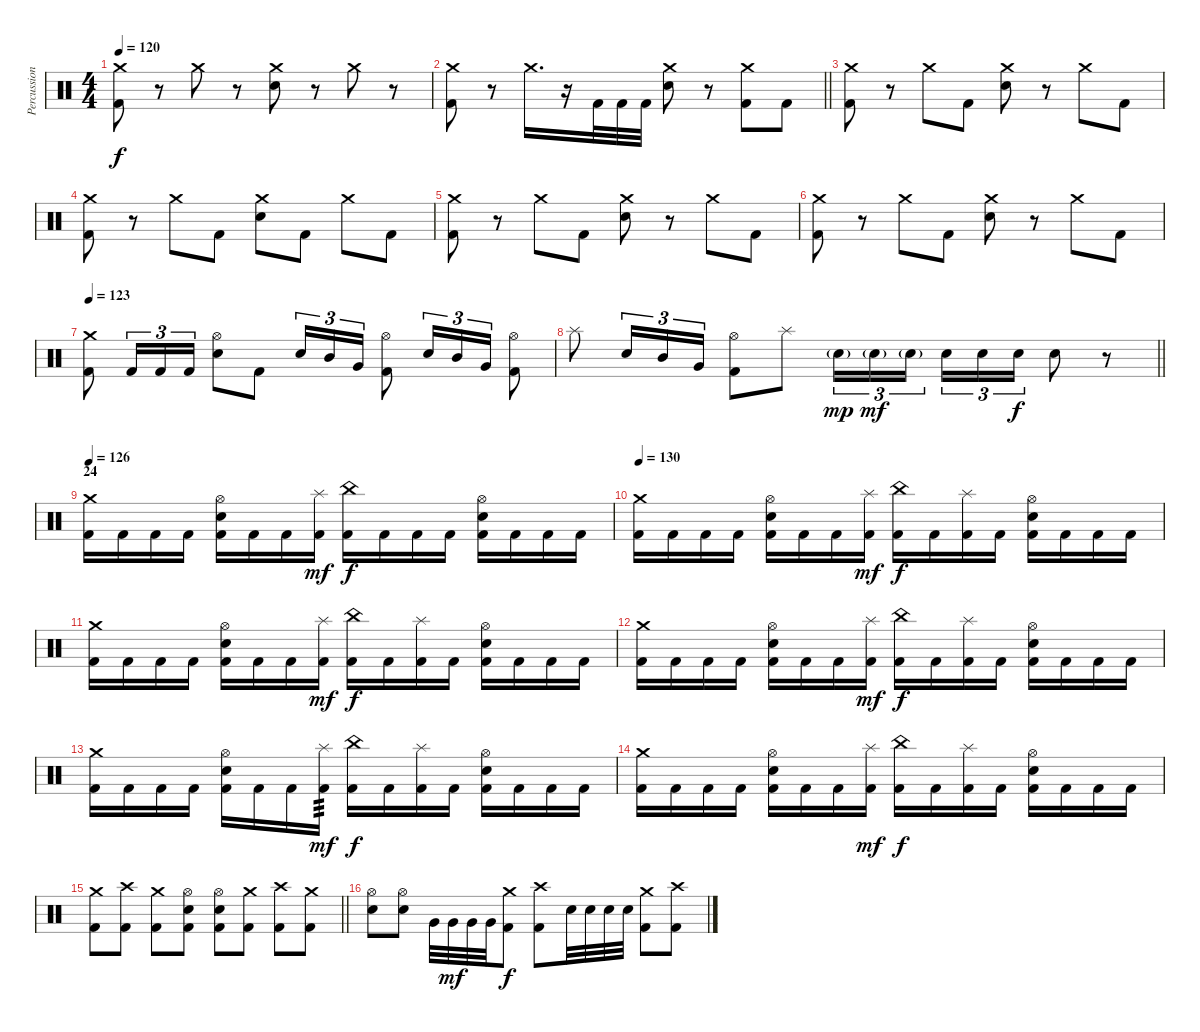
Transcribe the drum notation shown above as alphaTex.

\track ("Percussion" "Percussion") {instrument percussion}
\staff {score}
\articulation defaults
\ts (4 4)
\tempo 120
\clef neutral
\ks c
("Crash medium (hit)" "Kick (hit) 2").8{dy f} r.8 "Crash medium (hit)".8 r.8 ("Crash medium (hit)" "Snare (hit) 2").8 r.8 "Crash medium (hit)".8 r.8 |
\barLineRight lightlight
("Crash medium (hit)" "Kick (hit) 2").8 r.8 "Crash medium (hit)".16{d} r.16 "Kick (hit) 2".32 "Kick (hit) 2".32 "Kick (hit) 2".32 ("Crash medium (hit)" "Snare (hit) 2").8 r.8 ("Crash medium (hit)" "Kick (hit) 2").8 "Kick (hit) 2".8 |
\section ("" "")
("Crash medium (hit)" "Kick (hit) 2").8 r.8 "Crash medium (hit)".8 "Kick (hit) 2".8 ("Crash medium (hit)" "Snare (hit) 2").8 r.8 "Crash medium (hit)".8 "Kick (hit) 2".8 |
("Crash medium (hit)" "Kick (hit) 2").8 r.8 "Crash medium (hit)".8 "Kick (hit) 2".8 ("Crash medium (hit)" "Snare (hit) 2").8 "Kick (hit) 2".8 "Crash medium (hit)".8 "Kick (hit) 2".8 |
("Crash medium (hit)" "Kick (hit) 2").8 r.8 "Crash medium (hit)".8 "Kick (hit) 2".8 ("Crash medium (hit)" "Snare (hit) 2").8 r.8 "Crash medium (hit)".8 "Kick (hit) 2".8 |
("Crash medium (hit)" "Kick (hit) 2").8 r.8 "Crash medium (hit)".8 "Kick (hit) 2".8 ("Crash medium (hit)" "Snare (hit) 2").8 r.8 "Crash medium (hit)".8 "Kick (hit) 2".8 |
\tempo 123
("Crash medium (hit)" "Kick (hit) 2").8 "Kick (hit) 2".16{tu (3 2)} "Kick (hit) 2".16{tu (3 2)} "Kick (hit) 2".16{tu (3 2)} ("Hi-Hat (open)" "Snare (hit) 2").8 "Kick (hit) 2".8 "Snare (hit) 2".16{tu (3 2)} "Mid Tom (hit)".16{tu (3 2)} "Very Low Tom (hit)".16{tu (3 2)} ("Hi-Hat (open)" "Kick (hit) 2").8 "Snare (hit) 2".16{tu (3 2)} "Mid Tom (hit)".16{tu (3 2)} "Very Low Tom (hit)".16{tu (3 2)} ("Hi-Hat (open)" "Kick (hit) 2").8 |
\barLineRight lightlight "Splash (hit)".8 "Snare (hit) 2".16{tu (3 2)} "Mid Tom (hit)".16{tu (3 2)} "Very Low Tom (hit)".16{tu (3 2)}
("Hi-Hat (open)" "Kick (hit) 2").8 "Splash (hit)".8 "Snare (hit) 2"{g}.16{tu (3 2) dy mp} "Snare (hit) 2"{g}.16{tu (3 2) dy mf} "Snare (hit) 2"{g}.16{tu (3 2) beam splitsecondary} "Snare (hit) 2".16{tu (3 2)} "Snare (hit) 2".16{tu (3 2)} "Snare (hit) 2".16{tu (3 2) dy f} "Snare (hit) 2".8 r.8 |
\section ("" "24")
\tempo 126
("Crash medium (hit)" "Kick (hit) 2").16 "Kick (hit) 2".16 "Kick (hit) 2".16 "Kick (hit) 2".16 ("Hi-Hat (open)" "Snare (hit) 2" "Kick (hit) 2").16 "Kick (hit) 2".16 "Kick (hit) 2".16 ("Splash (hit)" "Kick (hit) 2").16{dy mf} ("China (hit)" "Kick (hit) 2").16{dy f} "Kick (hit) 2".16 "Kick (hit) 2".16 "Kick (hit) 2".16 ("Hi-Hat (open)" "Snare (hit) 2" "Kick (hit) 2").16 "Kick (hit) 2".16 "Kick (hit) 2".16 "Kick (hit) 2".16 |
\tempo 130
("Crash medium (hit)" "Kick (hit) 2").16 "Kick (hit) 2".16 "Kick (hit) 2".16 "Kick (hit) 2".16 ("Hi-Hat (open)" "Snare (hit) 2" "Kick (hit) 2").16 "Kick (hit) 2".16 "Kick (hit) 2".16 ("Splash (hit)" "Kick (hit) 2").16{dy mf} ("China (hit)" "Kick (hit) 2").16{dy f} "Kick (hit) 2".16 ("Splash (hit)" "Kick (hit) 2").16 "Kick (hit) 2".16 ("Hi-Hat (open)" "Snare (hit) 2" "Kick (hit) 2").16 "Kick (hit) 2".16 "Kick (hit) 2".16 "Kick (hit) 2".16 |
("Crash medium (hit)" "Kick (hit) 2").16 "Kick (hit) 2".16 "Kick (hit) 2".16 "Kick (hit) 2".16 ("Hi-Hat (open)" "Snare (hit) 2" "Kick (hit) 2").16 "Kick (hit) 2".16 "Kick (hit) 2".16 ("Splash (hit)" "Kick (hit) 2").16{dy mf} ("China (hit)" "Kick (hit) 2").16{dy f} "Kick (hit) 2".16 ("Splash (hit)" "Kick (hit) 2").16 "Kick (hit) 2".16 ("Hi-Hat (open)" "Snare (hit) 2" "Kick (hit) 2").16 "Kick (hit) 2".16 "Kick (hit) 2".16 "Kick (hit) 2".16 |
("Crash medium (hit)" "Kick (hit) 2").16 "Kick (hit) 2".16 "Kick (hit) 2".16 "Kick (hit) 2".16 ("Hi-Hat (open)" "Snare (hit) 2" "Kick (hit) 2").16 "Kick (hit) 2".16 "Kick (hit) 2".16 ("Splash (hit)" "Kick (hit) 2").16{dy mf} ("China (hit)" "Kick (hit) 2").16{dy f} "Kick (hit) 2".16 ("Splash (hit)" "Kick (hit) 2").16 "Kick (hit) 2".16 ("Hi-Hat (open)" "Snare (hit) 2" "Kick (hit) 2").16 "Kick (hit) 2".16 "Kick (hit) 2".16 "Kick (hit) 2".16 |
("Crash medium (hit)" "Kick (hit) 2").16 "Kick (hit) 2".16 "Kick (hit) 2".16 "Kick (hit) 2".16 ("Hi-Hat (open)" "Snare (hit) 2" "Kick (hit) 2").16 "Kick (hit) 2".16 "Kick (hit) 2".16 ("Splash (hit)" "Kick (hit) 2").16{tp 3 dy mf} ("China (hit)" "Kick (hit) 2").16{dy f} "Kick (hit) 2".16 ("Splash (hit)" "Kick (hit) 2").16 "Kick (hit) 2".16 ("Hi-Hat (open)" "Snare (hit) 2" "Kick (hit) 2").16 "Kick (hit) 2".16 "Kick (hit) 2".16 "Kick (hit) 2".16 |
("Crash medium (hit)" "Kick (hit) 2").16 "Kick (hit) 2".16 "Kick (hit) 2".16 "Kick (hit) 2".16 ("Hi-Hat (open)" "Snare (hit) 2" "Kick (hit) 2").16 "Kick (hit) 2".16 "Kick (hit) 2".16 ("Splash (hit)" "Kick (hit) 2").16{dy mf} ("China (hit)" "Kick (hit) 2").16{dy f} "Kick (hit) 2".16 ("Splash (hit)" "Kick (hit) 2").16 "Kick (hit) 2".16 ("Hi-Hat (open)" "Snare (hit) 2" "Kick (hit) 2").16 "Kick (hit) 2".16 "Kick (hit) 2".16 "Kick (hit) 2".16 |
\barLineRight lightlight
("Crash medium (hit)" "Kick (hit) 2").8 ("Crash high (hit)" "Kick (hit) 2").8 ("Crash medium (hit)" "Kick (hit) 2").8 ("Hi-Hat (open)" "Snare (hit) 2" "Kick (hit) 2").8 ("Hi-Hat (open)" "Snare (hit) 2" "Kick (hit) 2").8 ("Crash medium (hit)" "Kick (hit) 2").8 ("Crash high (hit)" "Kick (hit) 2").8 ("Crash medium (hit)" "Kick (hit) 2").8 |
\section ("" "")
("Hi-Hat (open)" "Snare (hit) 2").8 ("Hi-Hat (open)" "Snare (hit) 2").8 "Very Low Tom (hit)".32 "Very Low Tom (hit)".32{dy mf} "Very Low Tom (hit)".32 "Very Low Tom (hit)".32 ("Crash medium (hit)" "Kick (hit) 2").8{dy f} ("Crash high (hit)" "Kick (hit) 2").8 "Snare (hit) 2".32 "Snare (hit) 2".32 "Snare (hit) 2".32 "Snare (hit) 2".32 ("Crash medium (hit)" "Kick (hit) 2").8 ("Crash high (hit)" "Kick (hit) 2").8
